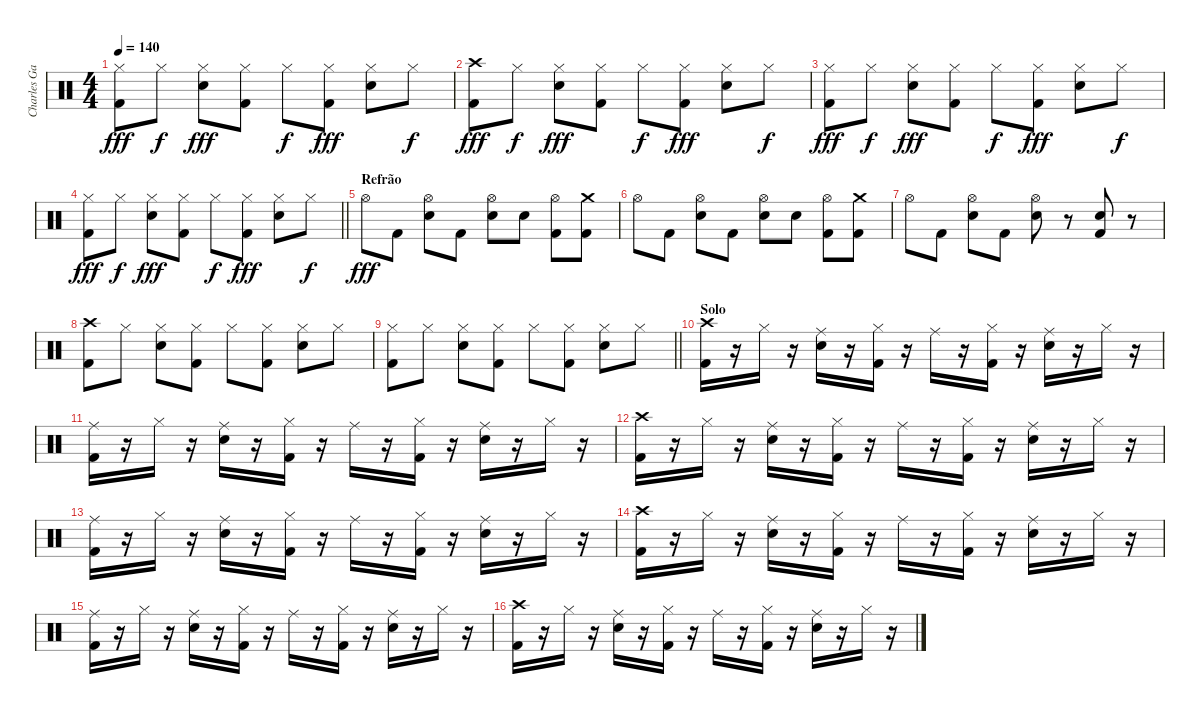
\track ("Charles Gavin" "Charles Ga") {instrument percussion}
\staff {score}
\articulation defaults
\ts (4 4)
\tempo 140
\clef neutral
\ks c
("Hi-Hat (closed)" "Kick (hit) 2").8{dy fff} "Hi-Hat (closed)".8{dy f} ("Hi-Hat (closed)" "Snare (hit) 2").8{dy fff} ("Hi-Hat (closed)" "Kick (hit) 2").8 "Hi-Hat (closed)".8{dy f} ("Hi-Hat (closed)" "Kick (hit) 2").8{dy fff} ("Hi-Hat (closed)" "Snare (hit) 2").8 "Hi-Hat (closed)".8{dy f} |
("Crash high (hit)" "Kick (hit) 2").8{dy fff} "Hi-Hat (closed)".8{dy f} ("Hi-Hat (closed)" "Snare (hit) 2").8{dy fff} ("Hi-Hat (closed)" "Kick (hit) 2").8 "Hi-Hat (closed)".8{dy f} ("Hi-Hat (closed)" "Kick (hit) 2").8{dy fff} ("Hi-Hat (closed)" "Snare (hit) 2").8 "Hi-Hat (closed)".8{dy f} |
("Hi-Hat (closed)" "Kick (hit) 2").8{dy fff} "Hi-Hat (closed)".8{dy f} ("Hi-Hat (closed)" "Snare (hit) 2").8{dy fff} ("Hi-Hat (closed)" "Kick (hit) 2").8 "Hi-Hat (closed)".8{dy f} ("Hi-Hat (closed)" "Kick (hit) 2").8{dy fff} ("Hi-Hat (closed)" "Snare (hit) 2").8 "Hi-Hat (closed)".8{dy f} |
\barLineRight lightlight
("Hi-Hat (closed)" "Kick (hit) 2").8{dy fff} "Hi-Hat (closed)".8{dy f} ("Hi-Hat (closed)" "Snare (hit) 2").8{dy fff} ("Hi-Hat (closed)" "Kick (hit) 2").8 "Hi-Hat (closed)".8{dy f} ("Hi-Hat (closed)" "Kick (hit) 2").8{dy fff} ("Hi-Hat (closed)" "Snare (hit) 2").8 "Hi-Hat (closed)".8{dy f} |
\section ("" "Refrão")
"Hi-Hat (open)".8{dy fff} "Kick (hit) 2".8 ("Hi-Hat (open)" "Snare (hit) 2").8 "Kick (hit) 2".8 ("Hi-Hat (open)" "Snare (hit) 2").8 "Snare (hit) 2".8 ("Hi-Hat (open)" "Kick (hit) 2").8 ("Crash medium (hit)" "Kick (hit) 2").8 |
"Hi-Hat (open)".8 "Kick (hit) 2".8 ("Hi-Hat (open)" "Snare (hit) 2").8 "Kick (hit) 2".8 ("Hi-Hat (open)" "Snare (hit) 2").8 "Snare (hit) 2".8 ("Hi-Hat (open)" "Kick (hit) 2").8 ("Crash medium (hit)" "Kick (hit) 2").8 |
"Hi-Hat (open)".8 "Kick (hit) 2".8 ("Hi-Hat (open)" "Snare (hit) 2").8 "Kick (hit) 2".8 ("Hi-Hat (open)" "Snare (hit) 2").8 r.8 ("Kick (hit) 2" "Snare (hit) 2").8 r.8 |
("Crash high (hit)" "Kick (hit) 2").8 "Hi-Hat (closed)".8 ("Hi-Hat (closed)" "Snare (hit) 2").8 ("Hi-Hat (closed)" "Kick (hit) 2").8 "Hi-Hat (closed)".8 ("Hi-Hat (closed)" "Kick (hit) 2").8 ("Hi-Hat (closed)" "Snare (hit) 2").8 "Hi-Hat (closed)".8 |
\barLineRight lightlight
("Hi-Hat (closed)" "Kick (hit) 2").8 "Hi-Hat (closed)".8 ("Hi-Hat (closed)" "Snare (hit) 2").8 ("Hi-Hat (closed)" "Kick (hit) 2").8 "Hi-Hat (closed)".8 ("Hi-Hat (closed)" "Kick (hit) 2").8 ("Hi-Hat (closed)" "Snare (hit) 2").8 "Hi-Hat (closed)".8 |
\section ("" "Solo")
("Crash high (hit)" "Kick (hit) 2").16 r.16 "Hi-Hat (closed)".16 r.16 ("Ride (middle)" "Snare (hit) 2").16 r.16 ("Hi-Hat (closed)" "Kick (hit) 2").16 r.16 "Ride (middle)".16 r.16 ("Hi-Hat (closed)" "Kick (hit) 2").16 r.16 ("Ride (middle)" "Snare (hit) 2").16 r.16 "Hi-Hat (closed)".16 r.16 |
("Ride (middle)" "Kick (hit) 2").16 r.16 "Hi-Hat (closed)".16 r.16 ("Ride (middle)" "Snare (hit) 2").16 r.16 ("Hi-Hat (closed)" "Kick (hit) 2").16 r.16 "Ride (middle)".16 r.16 ("Hi-Hat (closed)" "Kick (hit) 2").16 r.16 ("Ride (middle)" "Snare (hit) 2").16 r.16 "Hi-Hat (closed)".16 r.16 |
("Crash high (hit)" "Kick (hit) 2").16 r.16 "Hi-Hat (closed)".16 r.16 ("Ride (middle)" "Snare (hit) 2").16 r.16 ("Hi-Hat (closed)" "Kick (hit) 2").16 r.16 "Ride (middle)".16 r.16 ("Hi-Hat (closed)" "Kick (hit) 2").16 r.16 ("Ride (middle)" "Snare (hit) 2").16 r.16 "Hi-Hat (closed)".16 r.16 |
("Ride (middle)" "Kick (hit) 2").16 r.16 "Hi-Hat (closed)".16 r.16 ("Ride (middle)" "Snare (hit) 2").16 r.16 ("Hi-Hat (closed)" "Kick (hit) 2").16 r.16 "Ride (middle)".16 r.16 ("Hi-Hat (closed)" "Kick (hit) 2").16 r.16 ("Ride (middle)" "Snare (hit) 2").16 r.16 "Hi-Hat (closed)".16 r.16 |
("Crash high (hit)" "Kick (hit) 2").16 r.16 "Hi-Hat (closed)".16 r.16 ("Ride (middle)" "Snare (hit) 2").16 r.16 ("Hi-Hat (closed)" "Kick (hit) 2").16 r.16 "Ride (middle)".16 r.16 ("Hi-Hat (closed)" "Kick (hit) 2").16 r.16 ("Ride (middle)" "Snare (hit) 2").16 r.16 "Hi-Hat (closed)".16 r.16 |
("Ride (middle)" "Kick (hit) 2").16 r.16 "Hi-Hat (closed)".16 r.16 ("Ride (middle)" "Snare (hit) 2").16 r.16 ("Hi-Hat (closed)" "Kick (hit) 2").16 r.16 "Ride (middle)".16 r.16 ("Hi-Hat (closed)" "Kick (hit) 2").16 r.16 ("Ride (middle)" "Snare (hit) 2").16 r.16 "Hi-Hat (closed)".16 r.16 |
("Crash high (hit)" "Kick (hit) 2").16 r.16 "Hi-Hat (closed)".16 r.16 ("Ride (middle)" "Snare (hit) 2").16 r.16 ("Hi-Hat (closed)" "Kick (hit) 2").16 r.16 "Ride (middle)".16 r.16 ("Hi-Hat (closed)" "Kick (hit) 2").16 r.16 ("Ride (middle)" "Snare (hit) 2").16 r.16 "Hi-Hat (closed)".16 r.16
